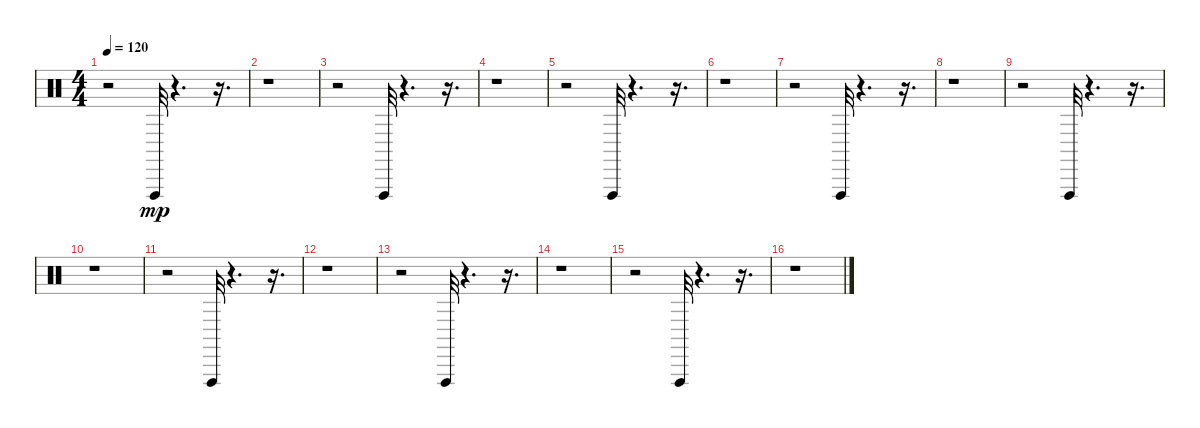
\track "" {instrument percussion}
\staff {score}
\articulation defaults
\ts (4 4)
\tempo 120
\clef neutral
\ks c
r.2{dy pp} "Vibraslap (hit)".32{dy mp} r.4{d} r.16{d} |
r.1 |
r.2 "Vibraslap (hit)".32 r.4{d} r.16{d} |
r.1 |
r.2 "Vibraslap (hit)".32 r.4{d} r.16{d} |
r.1 |
r.2 "Vibraslap (hit)".32 r.4{d} r.16{d} |
r.1 |
r.2 "Vibraslap (hit)".32 r.4{d} r.16{d} |
r.1 |
r.2 "Vibraslap (hit)".32 r.4{d} r.16{d} |
r.1 |
r.2 "Vibraslap (hit)".32 r.4{d} r.16{d} |
r.1 |
r.2 "Vibraslap (hit)".32 r.4{d} r.16{d} |
r.1
